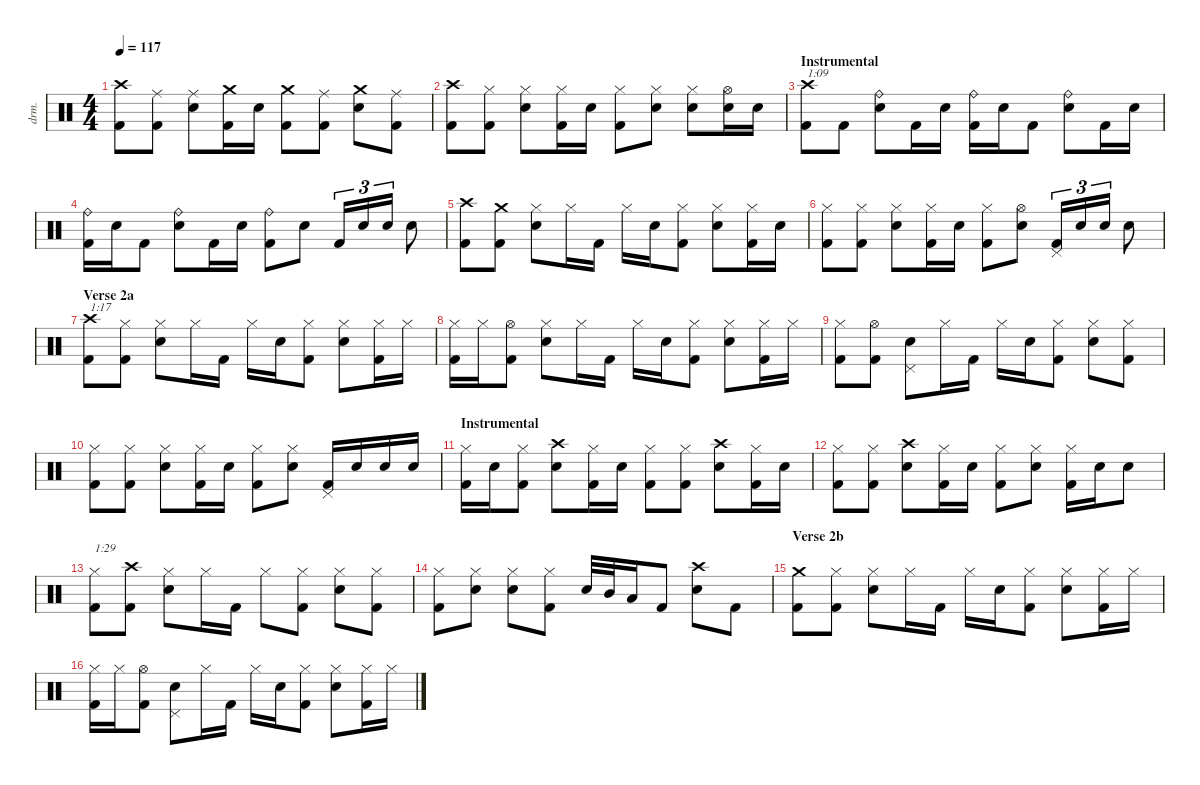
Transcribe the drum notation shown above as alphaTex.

\defaultSystemsLayout 4
\hideDynamics
\bracketExtendMode nobrackets
\otherSystemsTrackNameOrientation horizontal
\track ("Drums" "drm.") {instrument percussion}
\staff {score}
\articulation defaults
\ts (4 4)
\tempo 117
\clef neutral
\ks c
("Kick (hit) 2" "Crash high (hit)").8{dy f} ("Kick (hit) 2" "Ride (middle)").8 ("Snare (hit) 2" "Ride (middle)").8 ("Kick (hit) 2" "Crash medium (hit)").16 "Snare (hit) 2".16 ("Kick (hit) 2" "Crash medium (hit)").8 ("Kick (hit) 2" "Ride (middle)").8 ("Snare (hit) 2" "Crash medium (hit)").8 ("Kick (hit) 2" "Ride (middle)").8 |
("Kick (hit) 2" "Crash high (hit)").8 ("Kick (hit) 2" "Hi-Hat (closed)").8 ("Snare (hit) 2" "Hi-Hat (closed)").8 ("Kick (hit) 2" "Hi-Hat (closed)").16 "Snare (hit) 2".16 ("Kick (hit) 2" "Hi-Hat (closed)").8 ("Snare (hit) 2" "Hi-Hat (closed)").8 ("Snare (hit) 2" "Hi-Hat (closed)").8 ("Snare (hit) 2" "Hi-Hat (open)").16 "Snare (hit) 2".16 |
\section ("" "Instrumental")
("Kick (hit) 2" "Crash high (hit)").8{txt "1:09"} "Kick (hit) 2".8 ("Snare (hit) 2" "Ride (bell)").8 "Kick (hit) 2".16 "Snare (hit) 2".16 ("Kick (hit) 2" "Ride (bell)").16 "Snare (hit) 2".16 "Kick (hit) 2".8 ("Snare (hit) 2" "Ride (bell)").8 "Kick (hit) 2".16 "Snare (hit) 2".16 |
("Kick (hit) 2" "Ride (bell)").16 "Snare (hit) 2".16 "Kick (hit) 2".8 ("Snare (hit) 2" "Ride (bell)").8 "Kick (hit) 2".16 "Snare (hit) 2".16 ("Kick (hit) 2" "Ride (bell)").8 "Snare (hit) 2".8 "Kick (hit) 2".16{tu (3 2)} "Snare (hit) 2".16{tu (3 2)} "Snare (hit) 2".16{tu (3 2)} "Snare (hit) 2".8 |
("Kick (hit) 2" "Crash high (hit)").8 ("Kick (hit) 2" "Crash medium (hit)").8 ("Snare (hit) 2" "Hi-Hat (closed)").8 "Hi-Hat (closed)".16 "Kick (hit) 2".16 "Hi-Hat (closed)".16 "Snare (hit) 2".16 ("Kick (hit) 2" "Hi-Hat (closed)").8 ("Snare (hit) 2" "Hi-Hat (closed)").8 ("Kick (hit) 2" "Hi-Hat (closed)").16 "Snare (hit) 2".16 |
("Kick (hit) 2" "Hi-Hat (closed)").8 ("Kick (hit) 2" "Hi-Hat (closed)").8 ("Snare (hit) 2" "Hi-Hat (closed)").8 ("Kick (hit) 2" "Hi-Hat (closed)").16 "Snare (hit) 2".16 ("Kick (hit) 2" "Hi-Hat (closed)").8 ("Snare (hit) 2" "Hi-Hat (open)").8 ("Kick (hit) 2" "Pedal Hi-Hat (hit)").16{tu (3 2)} "Snare (hit) 2".16{tu (3 2)} "Snare (hit) 2".16{tu (3 2)} "Snare (hit) 2".8 |
\section ("" "Verse 2a")
("Kick (hit) 2" "Crash high (hit)").8{txt "1:17"} ("Kick (hit) 2" "Hi-Hat (closed)").8 ("Snare (hit) 2" "Hi-Hat (closed)").8 "Hi-Hat (closed)".16 "Kick (hit) 2".16 "Hi-Hat (closed)".16 "Snare (hit) 2".16 ("Kick (hit) 2" "Hi-Hat (closed)").8 ("Snare (hit) 2" "Hi-Hat (closed)").8 ("Kick (hit) 2" "Hi-Hat (closed)").16 "Hi-Hat (closed)".16 |
("Kick (hit) 2" "Hi-Hat (closed)").16 "Hi-Hat (closed)".16 ("Kick (hit) 2" "Hi-Hat (open)").8 ("Snare (hit) 2" "Hi-Hat (closed)").8 "Hi-Hat (closed)".16 "Kick (hit) 2".16 "Hi-Hat (closed)".16 "Snare (hit) 2".16 ("Kick (hit) 2" "Hi-Hat (closed)").8 ("Snare (hit) 2" "Hi-Hat (closed)").8 ("Kick (hit) 2" "Hi-Hat (closed)").16 "Hi-Hat (closed)".16 |
("Kick (hit) 2" "Hi-Hat (closed)").8 ("Kick (hit) 2" "Hi-Hat (open)").8 ("Snare (hit) 2" "Pedal Hi-Hat (hit)").8 "Hi-Hat (closed)".16 "Kick (hit) 2".16 "Hi-Hat (closed)".16 "Snare (hit) 2".16 ("Kick (hit) 2" "Hi-Hat (closed)").8 ("Snare (hit) 2" "Hi-Hat (closed)").8 ("Kick (hit) 2" "Hi-Hat (closed)").8 |
("Kick (hit) 2" "Hi-Hat (closed)").8 ("Kick (hit) 2" "Hi-Hat (closed)").8 ("Snare (hit) 2" "Hi-Hat (closed)").8 ("Kick (hit) 2" "Hi-Hat (closed)").16 "Snare (hit) 2".16 ("Kick (hit) 2" "Hi-Hat (closed)").8 ("Snare (hit) 2" "Hi-Hat (closed)").8 ("Kick (hit) 2" "Pedal Hi-Hat (hit)").16 "Snare (hit) 2".16 "Snare (hit) 2".16 "Snare (hit) 2".16 |
\section ("" "Instrumental")
("Kick (hit) 2" "Hi-Hat (closed)").16 "Snare (hit) 2".16 ("Kick (hit) 2" "Hi-Hat (closed)").8 ("Snare (hit) 2" "Crash high (hit)").8 ("Kick (hit) 2" "Hi-Hat (closed)").16 "Snare (hit) 2".16 ("Kick (hit) 2" "Hi-Hat (closed)").8 ("Kick (hit) 2" "Hi-Hat (closed)").8 ("Snare (hit) 2" "Crash high (hit)").8 ("Kick (hit) 2" "Hi-Hat (closed)").16 "Snare (hit) 2".16 |
("Kick (hit) 2" "Hi-Hat (closed)").8 ("Kick (hit) 2" "Hi-Hat (closed)").8 ("Snare (hit) 2" "Crash high (hit)").8 ("Kick (hit) 2" "Hi-Hat (closed)").16 "Snare (hit) 2".16 ("Kick (hit) 2" "Hi-Hat (closed)").8 ("Snare (hit) 2" "Hi-Hat (closed)").8 ("Kick (hit) 2" "Hi-Hat (closed)").16 "Snare (hit) 2".16 "Snare (hit) 2".8 |
("Kick (hit) 2" "Hi-Hat (closed)").8{txt "1:29"} ("Kick (hit) 2" "Crash high (hit)").8 ("Snare (hit) 2" "Hi-Hat (closed)").8 "Hi-Hat (closed)".16 "Kick (hit) 2".16 "Hi-Hat (closed)".8 ("Kick (hit) 2" "Hi-Hat (closed)").8 ("Snare (hit) 2" "Hi-Hat (closed)").8 ("Kick (hit) 2" "Hi-Hat (closed)").8 |
("Kick (hit) 2" "Hi-Hat (closed)").8 ("Snare (hit) 2" "Hi-Hat (closed)").8 ("Snare (hit) 2" "Hi-Hat (closed)").8 ("Kick (hit) 2" "Hi-Hat (closed)").8 "Snare (hit) 2".32 "Mid Tom (hit)".32 "Low Tom (hit)".16 "Kick (hit) 2".8 ("Snare (hit) 2" "Crash high (hit)").8 "Kick (hit) 2".8 |
\section ("" "Verse 2b")
("Kick (hit) 2" "Crash medium (hit)").8 ("Kick (hit) 2" "Hi-Hat (closed)").8 ("Snare (hit) 2" "Hi-Hat (closed)").8 "Hi-Hat (closed)".16 "Kick (hit) 2".16 "Hi-Hat (closed)".16 "Snare (hit) 2".16 ("Kick (hit) 2" "Hi-Hat (closed)").8 ("Snare (hit) 2" "Hi-Hat (closed)").8 ("Kick (hit) 2" "Hi-Hat (closed)").16 "Hi-Hat (closed)".16 |
("Kick (hit) 2" "Hi-Hat (closed)").16 "Hi-Hat (closed)".16 ("Kick (hit) 2" "Hi-Hat (open)").8 ("Snare (hit) 2" "Pedal Hi-Hat (hit)").8 "Hi-Hat (closed)".16 "Kick (hit) 2".16 "Hi-Hat (closed)".16 "Snare (hit) 2".16 ("Kick (hit) 2" "Hi-Hat (closed)").8 ("Snare (hit) 2" "Hi-Hat (closed)").8 ("Kick (hit) 2" "Hi-Hat (closed)").16 "Hi-Hat (closed)".16
